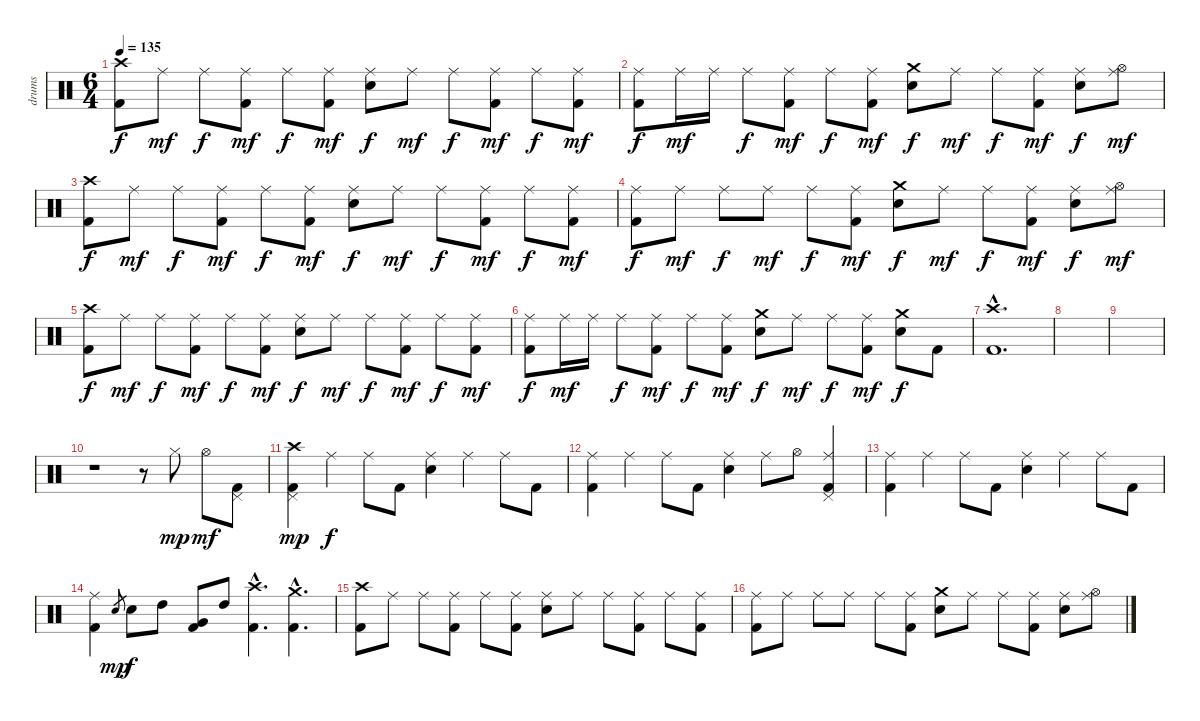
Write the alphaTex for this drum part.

\track ("drums" "drums") {instrument percussion}
\staff {score}
\articulation defaults
\ts (6 4)
\tempo 135
\clef neutral
\ks c
("Crash high (hit)" "Kick (hit) 2").8{dy f} "Ride (middle)".8{dy mf} "Ride (middle)".8{dy f} ("Ride (middle)" "Kick (hit) 2").8{dy mf} "Ride (middle)".8{dy f} ("Ride (middle)" "Kick (hit) 2").8{dy mf} ("Ride (middle)" "Electric Snare (hit)").8{dy f} "Ride (middle)".8{dy mf} "Ride (middle)".8{dy f} ("Ride (middle)" "Kick (hit) 2").8{dy mf} "Ride (middle)".8{dy f} ("Ride (middle)" "Kick (hit) 2").8{dy mf} |
("Ride (middle)" "Kick (hit) 2").8{dy f} "Ride (middle)".16{dy mf} "Ride (middle)".16 "Ride (middle)".8{dy f} ("Ride (middle)" "Kick (hit) 2").8{dy mf} "Ride (middle)".8{dy f} ("Ride (middle)" "Kick (hit) 2").8{dy mf} ("Crash medium (hit)" "Electric Snare (hit)").8{dy f} "Ride (middle)".8{dy mf} "Ride (middle)".8{dy f} ("Ride (middle)" "Kick (hit) 2").8{dy mf} ("Ride (middle)" "Electric Snare (hit)").8{dy f} ("Ride (middle)" "Hi-Hat (open)").8{dy mf} |
("Crash high (hit)" "Kick (hit) 2").8{dy f} "Ride (middle)".8{dy mf} "Ride (middle)".8{dy f} ("Ride (middle)" "Kick (hit) 2").8{dy mf} "Ride (middle)".8{dy f} ("Ride (middle)" "Kick (hit) 2").8{dy mf} ("Ride (middle)" "Electric Snare (hit)").8{dy f} "Ride (middle)".8{dy mf} "Ride (middle)".8{dy f} ("Ride (middle)" "Kick (hit) 2").8{dy mf} "Ride (middle)".8{dy f} ("Ride (middle)" "Kick (hit) 2").8{dy mf} |
("Ride (middle)" "Kick (hit) 2").8{dy f} "Ride (middle)".8{dy mf} "Ride (middle)".8{dy f} "Ride (middle)".8{dy mf} "Ride (middle)".8{dy f} ("Ride (middle)" "Kick (hit) 2").8{dy mf} ("Crash medium (hit)" "Electric Snare (hit)").8{dy f} "Ride (middle)".8{dy mf} "Ride (middle)".8{dy f} ("Ride (middle)" "Kick (hit) 2").8{dy mf} ("Ride (middle)" "Electric Snare (hit)").8{dy f} ("Ride (middle)" "Hi-Hat (open)").8{dy mf} |
("Crash high (hit)" "Kick (hit) 2").8{dy f} "Ride (middle)".8{dy mf} "Ride (middle)".8{dy f} ("Ride (middle)" "Kick (hit) 2").8{dy mf} "Ride (middle)".8{dy f} ("Ride (middle)" "Kick (hit) 2").8{dy mf} ("Ride (middle)" "Electric Snare (hit)").8{dy f} "Ride (middle)".8{dy mf} "Ride (middle)".8{dy f} ("Ride (middle)" "Kick (hit) 2").8{dy mf} "Ride (middle)".8{dy f} ("Ride (middle)" "Kick (hit) 2").8{dy mf} |
("Ride (middle)" "Kick (hit) 2").8{dy f} "Ride (middle)".16{dy mf} "Ride (middle)".16 "Ride (middle)".8{dy f} ("Ride (middle)" "Kick (hit) 2").8{dy mf} "Ride (middle)".8{dy f} ("Ride (middle)" "Kick (hit) 2").8{dy mf} ("Crash medium (hit)" "Electric Snare (hit)").8{dy f} "Ride (middle)".8{dy mf} "Ride (middle)".8{dy f} ("Ride (middle)" "Kick (hit) 2").8{dy mf} ("Crash medium (hit)" "Electric Snare (hit)").8{dy f} "Kick (hit) 2".8 |
("Crash high (hit)"{hac} "Kick (hit) 2"{hac}).1{d} |
|
|
r.1 r.8 "Hi-Hat (closed)".8{dy mp volume 11} "Hi-Hat (open)".8{dy mf} ("Pedal Hi-Hat (hit)" "Kick (hit) 2").8 |
("Crash high (hit)" "Pedal Hi-Hat (hit)" "Kick (hit) 2").4{dy mp} "Ride (middle)".4{dy f} "Ride (middle)".8 "Kick (hit) 2".8 ("Ride (middle)" "Electric Snare (hit)").4 "Ride (middle)".4 "Ride (middle)".8 "Kick (hit) 2".8 |
("Ride (middle)" "Kick (hit) 2").4 "Ride (middle)".4 "Ride (middle)".8 "Kick (hit) 2".8 ("Ride (middle)" "Electric Snare (hit)").4 "Ride (middle)".8 "Hi-Hat (open)".8 ("Ride (middle)" "Pedal Hi-Hat (hit)" "Kick (hit) 2").4 |
("Ride (middle)" "Kick (hit) 2").4 "Ride (middle)".4 "Ride (middle)".8 "Kick (hit) 2".8 ("Ride (middle)" "Electric Snare (hit)").4 "Ride (middle)".4 "Ride (middle)".8 "Kick (hit) 2".8 |
("Ride (middle)" "Kick (hit) 2").4 "Electric Snare (hit)".8{gr dy mp} "Electric Snare (hit)".8{dy f} "High Tom (hit)".8 ("Very Low Tom (hit)" "Kick (hit) 2").8 "High Tom (hit)".8 ("Crash high (hit)"{hac} "Kick (hit) 2"{hac}).4{d volume 14} ("Crash medium (hit)"{hac} "Kick (hit) 2"{hac}).4{d} |
("Crash high (hit)" "Kick (hit) 2").8 "Ride (middle)".8 "Ride (middle)".8 ("Ride (middle)" "Kick (hit) 2").8 "Ride (middle)".8 ("Ride (middle)" "Kick (hit) 2").8 ("Ride (middle)" "Electric Snare (hit)").8 "Ride (middle)".8 "Ride (middle)".8 ("Ride (middle)" "Kick (hit) 2").8 "Ride (middle)".8 ("Ride (middle)" "Kick (hit) 2").8 |
("Ride (middle)" "Kick (hit) 2").8 "Ride (middle)".8 "Ride (middle)".8 "Ride (middle)".8 "Ride (middle)".8 ("Ride (middle)" "Kick (hit) 2").8 ("Crash medium (hit)" "Electric Snare (hit)").8 "Ride (middle)".8 "Ride (middle)".8 ("Ride (middle)" "Kick (hit) 2").8 ("Ride (middle)" "Electric Snare (hit)").8 ("Ride (middle)" "Hi-Hat (open)").8
